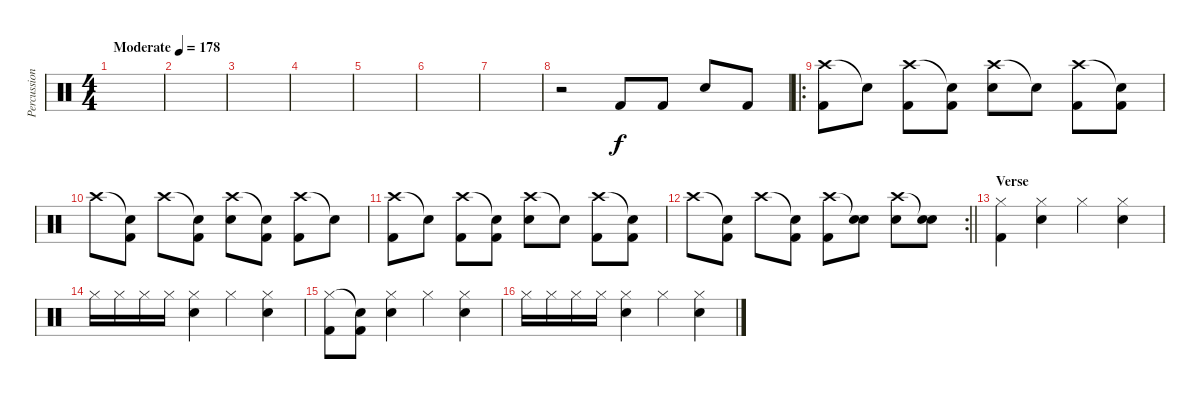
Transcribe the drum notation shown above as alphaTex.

\track ("Percussion" "Percussion") {instrument percussion}
\staff {score}
\articulation defaults
\ts (4 4)
\tempo (178 "Moderate")
\clef neutral
\ks c
|
|
|
|
|
|
|
r.2 "Kick (hit) 2".8 "Kick (hit) 2".8 "Snare (hit) 2".8 "Kick (hit) 2".8 |
\ro
("Crash high (hit)" "Kick (hit) 2").8 "Snare (hit)"{t}.8 ("Crash high (hit)" "Kick (hit) 2").8 ("Snare (hit)"{t} "Kick (hit) 2").8 ("Crash high (hit)" "Snare (hit) 2").8 "Snare (hit)"{t}.8 ("Crash high (hit)" "Kick (hit) 2").8 ("Snare (hit)"{t} "Kick (hit) 2").8 |
"Crash high (hit)".8 ("Snare (hit)"{t} "Kick (hit) 2").8 "Crash high (hit)".8 ("Snare (hit)"{t} "Kick (hit) 2").8 ("Crash high (hit)" "Snare (hit) 2").8 ("Snare (hit)"{t} "Kick (hit) 2").8 ("Crash high (hit)" "Kick (hit) 2").8 "Snare (hit)"{t}.8 |
("Crash high (hit)" "Kick (hit) 2").8 "Snare (hit)"{t}.8 ("Crash high (hit)" "Kick (hit) 2").8 ("Snare (hit)"{t} "Kick (hit) 2").8 ("Crash high (hit)" "Snare (hit) 2").8 "Snare (hit)"{t}.8 ("Crash high (hit)" "Kick (hit) 2").8 ("Snare (hit)"{t} "Kick (hit) 2").8 |
\rc 2
\barLineRight lightlight "Crash high (hit)".8
("Snare (hit)"{t} "Kick (hit) 2").8 "Crash high (hit)".8 ("Snare (hit)"{t} "Kick (hit) 2").8 ("Crash high (hit)" "Kick (hit) 2").8 ("Snare (hit)"{t} "Snare (hit) 2").8 ("Crash high (hit)" "Snare (hit) 2").8 ("Snare (hit)"{t} "Snare (hit) 2").8 |
\section ("" "Verse")
("Hi-Hat (closed)" "Kick (hit) 2").4 ("Hi-Hat (closed)" "Snare (hit) 2").4 "Hi-Hat (closed)".4 ("Hi-Hat (closed)" "Snare (hit) 2").4 |
"Hi-Hat (closed)".16 "Hi-Hat (closed)".16 "Hi-Hat (closed)".16 "Hi-Hat (closed)".16 ("Hi-Hat (closed)" "Snare (hit) 2").4 "Hi-Hat (closed)".4 ("Hi-Hat (closed)" "Snare (hit) 2").4 |
("Hi-Hat (closed)" "Kick (hit) 2").8 ("Snare (hit)"{t} "Kick (hit) 2").8 ("Hi-Hat (closed)" "Snare (hit) 2").4 "Hi-Hat (closed)".4 ("Hi-Hat (closed)" "Snare (hit) 2").4 |
"Hi-Hat (closed)".16 "Hi-Hat (closed)".16 "Hi-Hat (closed)".16 "Hi-Hat (closed)".16 ("Hi-Hat (closed)" "Snare (hit) 2").4 "Hi-Hat (closed)".4 ("Hi-Hat (closed)" "Snare (hit) 2").4
